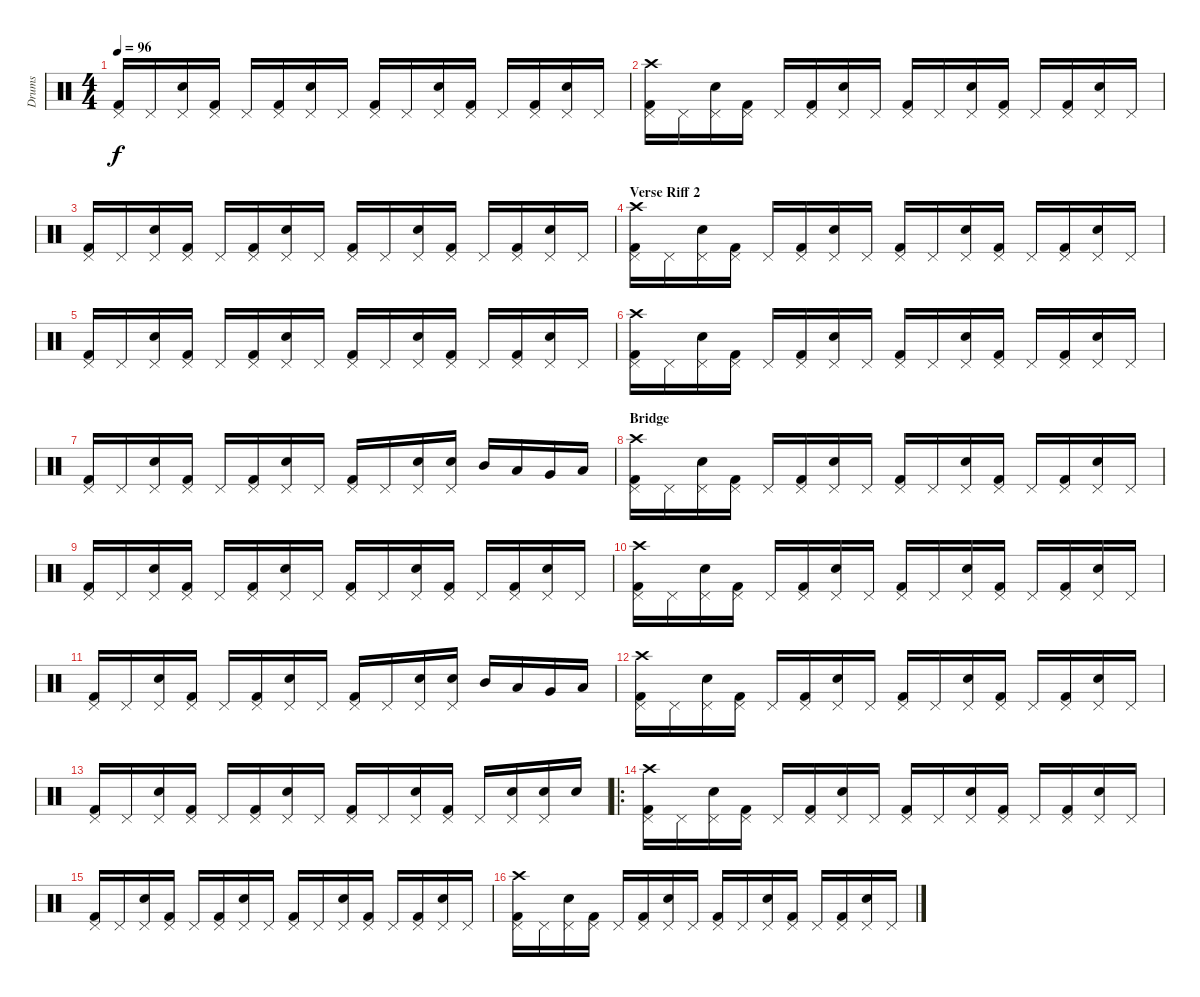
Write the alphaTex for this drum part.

\track ("Drums" "Drums") {instrument percussion}
\staff {score}
\articulation defaults
\ts (4 4)
\tempo 96
\clef neutral
\ks c
("Kick (hit) 2" "Pedal Hi-Hat (hit)").16{dy f} "Pedal Hi-Hat (hit)".16 ("Snare (hit) 2" "Pedal Hi-Hat (hit)").16 ("Kick (hit) 2" "Pedal Hi-Hat (hit)").16 "Pedal Hi-Hat (hit)".16 ("Kick (hit) 2" "Pedal Hi-Hat (hit)").16 ("Snare (hit) 2" "Pedal Hi-Hat (hit)").16 "Pedal Hi-Hat (hit)".16 ("Kick (hit) 2" "Pedal Hi-Hat (hit)").16 "Pedal Hi-Hat (hit)".16 ("Snare (hit) 2" "Pedal Hi-Hat (hit)").16 ("Kick (hit) 2" "Pedal Hi-Hat (hit)").16 "Pedal Hi-Hat (hit)".16 ("Kick (hit) 2" "Pedal Hi-Hat (hit)").16 ("Snare (hit) 2" "Pedal Hi-Hat (hit)").16 "Pedal Hi-Hat (hit)".16 |
("Kick (hit) 2" "Pedal Hi-Hat (hit)" "Crash high (hit)").16 "Pedal Hi-Hat (hit)".16 ("Snare (hit) 2" "Pedal Hi-Hat (hit)").16 ("Kick (hit) 2" "Pedal Hi-Hat (hit)").16 "Pedal Hi-Hat (hit)".16 ("Kick (hit) 2" "Pedal Hi-Hat (hit)").16 ("Snare (hit) 2" "Pedal Hi-Hat (hit)").16 "Pedal Hi-Hat (hit)".16 ("Kick (hit) 2" "Pedal Hi-Hat (hit)").16 "Pedal Hi-Hat (hit)".16 ("Snare (hit) 2" "Pedal Hi-Hat (hit)").16 ("Kick (hit) 2" "Pedal Hi-Hat (hit)").16 "Pedal Hi-Hat (hit)".16 ("Kick (hit) 2" "Pedal Hi-Hat (hit)").16 ("Snare (hit) 2" "Pedal Hi-Hat (hit)").16 "Pedal Hi-Hat (hit)".16 |
("Kick (hit) 2" "Pedal Hi-Hat (hit)").16 "Pedal Hi-Hat (hit)".16 ("Snare (hit) 2" "Pedal Hi-Hat (hit)").16 ("Kick (hit) 2" "Pedal Hi-Hat (hit)").16 "Pedal Hi-Hat (hit)".16 ("Kick (hit) 2" "Pedal Hi-Hat (hit)").16 ("Snare (hit) 2" "Pedal Hi-Hat (hit)").16 "Pedal Hi-Hat (hit)".16 ("Kick (hit) 2" "Pedal Hi-Hat (hit)").16 "Pedal Hi-Hat (hit)".16 ("Snare (hit) 2" "Pedal Hi-Hat (hit)").16 ("Kick (hit) 2" "Pedal Hi-Hat (hit)").16 "Pedal Hi-Hat (hit)".16 ("Kick (hit) 2" "Pedal Hi-Hat (hit)").16 ("Snare (hit) 2" "Pedal Hi-Hat (hit)").16 "Pedal Hi-Hat (hit)".16 |
\section ("" "Verse Riff 2")
("Kick (hit) 2" "Pedal Hi-Hat (hit)" "Crash high (hit)").16 "Pedal Hi-Hat (hit)".16 ("Snare (hit) 2" "Pedal Hi-Hat (hit)").16 ("Kick (hit) 2" "Pedal Hi-Hat (hit)").16 "Pedal Hi-Hat (hit)".16 ("Kick (hit) 2" "Pedal Hi-Hat (hit)").16 ("Snare (hit) 2" "Pedal Hi-Hat (hit)").16 "Pedal Hi-Hat (hit)".16 ("Kick (hit) 2" "Pedal Hi-Hat (hit)").16 "Pedal Hi-Hat (hit)".16 ("Snare (hit) 2" "Pedal Hi-Hat (hit)").16 ("Kick (hit) 2" "Pedal Hi-Hat (hit)").16 "Pedal Hi-Hat (hit)".16 ("Kick (hit) 2" "Pedal Hi-Hat (hit)").16 ("Snare (hit) 2" "Pedal Hi-Hat (hit)").16 "Pedal Hi-Hat (hit)".16 |
("Kick (hit) 2" "Pedal Hi-Hat (hit)").16 "Pedal Hi-Hat (hit)".16 ("Snare (hit) 2" "Pedal Hi-Hat (hit)").16 ("Kick (hit) 2" "Pedal Hi-Hat (hit)").16 "Pedal Hi-Hat (hit)".16 ("Kick (hit) 2" "Pedal Hi-Hat (hit)").16 ("Snare (hit) 2" "Pedal Hi-Hat (hit)").16 "Pedal Hi-Hat (hit)".16 ("Kick (hit) 2" "Pedal Hi-Hat (hit)").16 "Pedal Hi-Hat (hit)".16 ("Snare (hit) 2" "Pedal Hi-Hat (hit)").16 ("Kick (hit) 2" "Pedal Hi-Hat (hit)").16 "Pedal Hi-Hat (hit)".16 ("Kick (hit) 2" "Pedal Hi-Hat (hit)").16 ("Snare (hit) 2" "Pedal Hi-Hat (hit)").16 "Pedal Hi-Hat (hit)".16 |
("Kick (hit) 2" "Pedal Hi-Hat (hit)" "Crash high (hit)").16 "Pedal Hi-Hat (hit)".16 ("Snare (hit) 2" "Pedal Hi-Hat (hit)").16 ("Kick (hit) 2" "Pedal Hi-Hat (hit)").16 "Pedal Hi-Hat (hit)".16 ("Kick (hit) 2" "Pedal Hi-Hat (hit)").16 ("Snare (hit) 2" "Pedal Hi-Hat (hit)").16 "Pedal Hi-Hat (hit)".16 ("Kick (hit) 2" "Pedal Hi-Hat (hit)").16 "Pedal Hi-Hat (hit)".16 ("Snare (hit) 2" "Pedal Hi-Hat (hit)").16 ("Kick (hit) 2" "Pedal Hi-Hat (hit)").16 "Pedal Hi-Hat (hit)".16 ("Kick (hit) 2" "Pedal Hi-Hat (hit)").16 ("Snare (hit) 2" "Pedal Hi-Hat (hit)").16 "Pedal Hi-Hat (hit)".16 |
("Kick (hit) 2" "Pedal Hi-Hat (hit)").16 "Pedal Hi-Hat (hit)".16 ("Snare (hit) 2" "Pedal Hi-Hat (hit)").16 ("Kick (hit) 2" "Pedal Hi-Hat (hit)").16 "Pedal Hi-Hat (hit)".16 ("Kick (hit) 2" "Pedal Hi-Hat (hit)").16 ("Snare (hit) 2" "Pedal Hi-Hat (hit)").16 "Pedal Hi-Hat (hit)".16 ("Kick (hit) 2" "Pedal Hi-Hat (hit)").16 "Pedal Hi-Hat (hit)".16 ("Snare (hit) 2" "Pedal Hi-Hat (hit)").16 ("Snare (hit) 2" "Pedal Hi-Hat (hit)").16 "Mid Tom (hit)".16 "Low Tom (hit)".16 "Very Low Tom (hit)".16 "Low Floor Tom (hit)".16 |
\section ("" "Bridge")
("Kick (hit) 2" "Pedal Hi-Hat (hit)" "Crash high (hit)").16 "Pedal Hi-Hat (hit)".16 ("Snare (hit) 2" "Pedal Hi-Hat (hit)").16 ("Kick (hit) 2" "Pedal Hi-Hat (hit)").16 "Pedal Hi-Hat (hit)".16 ("Kick (hit) 2" "Pedal Hi-Hat (hit)").16 ("Snare (hit) 2" "Pedal Hi-Hat (hit)").16 "Pedal Hi-Hat (hit)".16 ("Kick (hit) 2" "Pedal Hi-Hat (hit)").16 "Pedal Hi-Hat (hit)".16 ("Snare (hit) 2" "Pedal Hi-Hat (hit)").16 ("Kick (hit) 2" "Pedal Hi-Hat (hit)").16 "Pedal Hi-Hat (hit)".16 ("Kick (hit) 2" "Pedal Hi-Hat (hit)").16 ("Snare (hit) 2" "Pedal Hi-Hat (hit)").16 "Pedal Hi-Hat (hit)".16 |
("Kick (hit) 2" "Pedal Hi-Hat (hit)").16 "Pedal Hi-Hat (hit)".16 ("Snare (hit) 2" "Pedal Hi-Hat (hit)").16 ("Kick (hit) 2" "Pedal Hi-Hat (hit)").16 "Pedal Hi-Hat (hit)".16 ("Kick (hit) 2" "Pedal Hi-Hat (hit)").16 ("Snare (hit) 2" "Pedal Hi-Hat (hit)").16 "Pedal Hi-Hat (hit)".16 ("Kick (hit) 2" "Pedal Hi-Hat (hit)").16 "Pedal Hi-Hat (hit)".16 ("Snare (hit) 2" "Pedal Hi-Hat (hit)").16 ("Kick (hit) 2" "Pedal Hi-Hat (hit)").16 "Pedal Hi-Hat (hit)".16 ("Kick (hit) 2" "Pedal Hi-Hat (hit)").16 ("Snare (hit) 2" "Pedal Hi-Hat (hit)").16 "Pedal Hi-Hat (hit)".16 |
("Kick (hit) 2" "Pedal Hi-Hat (hit)" "Crash high (hit)").16 "Pedal Hi-Hat (hit)".16 ("Snare (hit) 2" "Pedal Hi-Hat (hit)").16 ("Kick (hit) 2" "Pedal Hi-Hat (hit)").16 "Pedal Hi-Hat (hit)".16 ("Kick (hit) 2" "Pedal Hi-Hat (hit)").16 ("Snare (hit) 2" "Pedal Hi-Hat (hit)").16 "Pedal Hi-Hat (hit)".16 ("Kick (hit) 2" "Pedal Hi-Hat (hit)").16 "Pedal Hi-Hat (hit)".16 ("Snare (hit) 2" "Pedal Hi-Hat (hit)").16 ("Kick (hit) 2" "Pedal Hi-Hat (hit)").16 "Pedal Hi-Hat (hit)".16 ("Kick (hit) 2" "Pedal Hi-Hat (hit)").16 ("Snare (hit) 2" "Pedal Hi-Hat (hit)").16 "Pedal Hi-Hat (hit)".16 |
("Kick (hit) 2" "Pedal Hi-Hat (hit)").16 "Pedal Hi-Hat (hit)".16 ("Snare (hit) 2" "Pedal Hi-Hat (hit)").16 ("Kick (hit) 2" "Pedal Hi-Hat (hit)").16 "Pedal Hi-Hat (hit)".16 ("Kick (hit) 2" "Pedal Hi-Hat (hit)").16 ("Snare (hit) 2" "Pedal Hi-Hat (hit)").16 "Pedal Hi-Hat (hit)".16 ("Kick (hit) 2" "Pedal Hi-Hat (hit)").16 "Pedal Hi-Hat (hit)".16 ("Snare (hit) 2" "Pedal Hi-Hat (hit)").16 ("Snare (hit) 2" "Pedal Hi-Hat (hit)").16 "Mid Tom (hit)".16 "Low Tom (hit)".16 "Very Low Tom (hit)".16 "Low Floor Tom (hit)".16 |
("Kick (hit) 2" "Pedal Hi-Hat (hit)" "Crash high (hit)").16 "Pedal Hi-Hat (hit)".16 ("Snare (hit) 2" "Pedal Hi-Hat (hit)").16 ("Kick (hit) 2" "Pedal Hi-Hat (hit)").16 "Pedal Hi-Hat (hit)".16 ("Kick (hit) 2" "Pedal Hi-Hat (hit)").16 ("Snare (hit) 2" "Pedal Hi-Hat (hit)").16 "Pedal Hi-Hat (hit)".16 ("Kick (hit) 2" "Pedal Hi-Hat (hit)").16 "Pedal Hi-Hat (hit)".16 ("Snare (hit) 2" "Pedal Hi-Hat (hit)").16 ("Kick (hit) 2" "Pedal Hi-Hat (hit)").16 "Pedal Hi-Hat (hit)".16 ("Kick (hit) 2" "Pedal Hi-Hat (hit)").16 ("Snare (hit) 2" "Pedal Hi-Hat (hit)").16 "Pedal Hi-Hat (hit)".16 |
("Kick (hit) 2" "Pedal Hi-Hat (hit)").16 "Pedal Hi-Hat (hit)".16 ("Snare (hit) 2" "Pedal Hi-Hat (hit)").16 ("Kick (hit) 2" "Pedal Hi-Hat (hit)").16 "Pedal Hi-Hat (hit)".16 ("Kick (hit) 2" "Pedal Hi-Hat (hit)").16 ("Snare (hit) 2" "Pedal Hi-Hat (hit)").16 "Pedal Hi-Hat (hit)".16 ("Kick (hit) 2" "Pedal Hi-Hat (hit)").16 "Pedal Hi-Hat (hit)".16 ("Snare (hit) 2" "Pedal Hi-Hat (hit)").16 ("Kick (hit) 2" "Pedal Hi-Hat (hit)").16 "Pedal Hi-Hat (hit)".16 ("Snare (hit) 2" "Pedal Hi-Hat (hit)").16 ("Snare (hit) 2" "Pedal Hi-Hat (hit)").16 "Snare (hit) 2".16 |
\ro
("Kick (hit) 2" "Pedal Hi-Hat (hit)" "Crash high (hit)").16 "Pedal Hi-Hat (hit)".16 ("Snare (hit) 2" "Pedal Hi-Hat (hit)").16 ("Kick (hit) 2" "Pedal Hi-Hat (hit)").16 "Pedal Hi-Hat (hit)".16 ("Kick (hit) 2" "Pedal Hi-Hat (hit)").16 ("Snare (hit) 2" "Pedal Hi-Hat (hit)").16 "Pedal Hi-Hat (hit)".16 ("Kick (hit) 2" "Pedal Hi-Hat (hit)").16 "Pedal Hi-Hat (hit)".16 ("Snare (hit) 2" "Pedal Hi-Hat (hit)").16 ("Kick (hit) 2" "Pedal Hi-Hat (hit)").16 "Pedal Hi-Hat (hit)".16 ("Kick (hit) 2" "Pedal Hi-Hat (hit)").16 ("Snare (hit) 2" "Pedal Hi-Hat (hit)").16 "Pedal Hi-Hat (hit)".16 |
("Kick (hit) 2" "Pedal Hi-Hat (hit)").16 "Pedal Hi-Hat (hit)".16 ("Snare (hit) 2" "Pedal Hi-Hat (hit)").16 ("Kick (hit) 2" "Pedal Hi-Hat (hit)").16 "Pedal Hi-Hat (hit)".16 ("Kick (hit) 2" "Pedal Hi-Hat (hit)").16 ("Snare (hit) 2" "Pedal Hi-Hat (hit)").16 "Pedal Hi-Hat (hit)".16 ("Kick (hit) 2" "Pedal Hi-Hat (hit)").16 "Pedal Hi-Hat (hit)".16 ("Snare (hit) 2" "Pedal Hi-Hat (hit)").16 ("Kick (hit) 2" "Pedal Hi-Hat (hit)").16 "Pedal Hi-Hat (hit)".16 ("Kick (hit) 2" "Pedal Hi-Hat (hit)").16 ("Snare (hit) 2" "Pedal Hi-Hat (hit)").16 "Pedal Hi-Hat (hit)".16 |
("Kick (hit) 2" "Pedal Hi-Hat (hit)" "Crash high (hit)").16 "Pedal Hi-Hat (hit)".16 ("Snare (hit) 2" "Pedal Hi-Hat (hit)").16 ("Kick (hit) 2" "Pedal Hi-Hat (hit)").16 "Pedal Hi-Hat (hit)".16 ("Kick (hit) 2" "Pedal Hi-Hat (hit)").16 ("Snare (hit) 2" "Pedal Hi-Hat (hit)").16 "Pedal Hi-Hat (hit)".16 ("Kick (hit) 2" "Pedal Hi-Hat (hit)").16 "Pedal Hi-Hat (hit)".16 ("Snare (hit) 2" "Pedal Hi-Hat (hit)").16 ("Kick (hit) 2" "Pedal Hi-Hat (hit)").16 "Pedal Hi-Hat (hit)".16 ("Kick (hit) 2" "Pedal Hi-Hat (hit)").16 ("Snare (hit) 2" "Pedal Hi-Hat (hit)").16 "Pedal Hi-Hat (hit)".16
